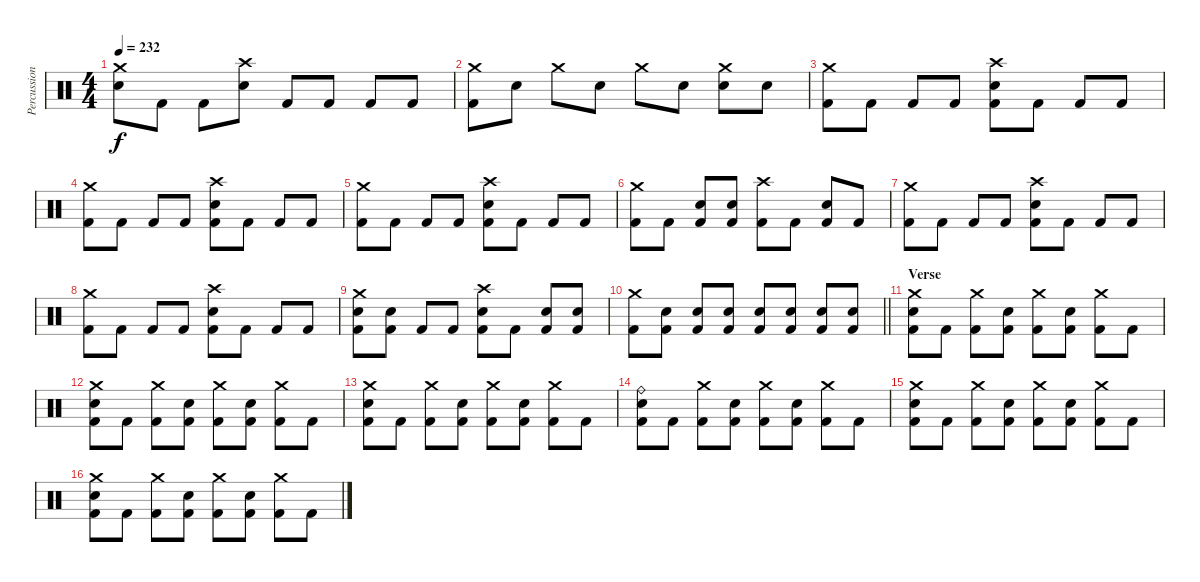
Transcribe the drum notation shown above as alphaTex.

\track ("Percussion" "Percussion") {instrument percussion}
\staff {score}
\articulation defaults
\ts (4 4)
\tempo 232
\clef neutral
\ks c
("Crash medium (hit)" "Electric Snare (hit)").8{dy f} "Kick (hit) 2".8 "Kick (hit) 2".8 ("Crash high (hit)" "Electric Snare (hit)").8 "Kick (hit) 2".8 "Kick (hit) 2".8 "Kick (hit) 2".8 "Kick (hit) 2".8 |
("Crash medium (hit)" "Kick (hit) 2").8 "Electric Snare (hit)".8 "Crash medium (hit)".8 "Electric Snare (hit)".8 "Crash medium (hit)".8 "Electric Snare (hit)".8 ("Crash medium (hit)" "Electric Snare (hit)").8 "Electric Snare (hit)".8 |
("Crash medium (hit)" "Kick (hit) 2").8 "Kick (hit) 2".8 "Kick (hit) 2".8 "Kick (hit) 2".8 ("Crash high (hit)" "Electric Snare (hit)" "Kick (hit) 2").8 "Kick (hit) 2".8 "Kick (hit) 2".8 "Kick (hit) 2".8 |
("Crash medium (hit)" "Kick (hit) 2").8 "Kick (hit) 2".8 "Kick (hit) 2".8 "Kick (hit) 2".8 ("Crash high (hit)" "Electric Snare (hit)" "Kick (hit) 2").8 "Kick (hit) 2".8 "Kick (hit) 2".8 "Kick (hit) 2".8 |
("Crash medium (hit)" "Kick (hit) 2").8 "Kick (hit) 2".8 "Kick (hit) 2".8 "Kick (hit) 2".8 ("Crash high (hit)" "Electric Snare (hit)" "Kick (hit) 2").8 "Kick (hit) 2".8 "Kick (hit) 2".8 "Kick (hit) 2".8 |
("Crash medium (hit)" "Kick (hit) 2").8 "Kick (hit) 2".8 ("Electric Snare (hit)" "Kick (hit) 2").8 ("Electric Snare (hit)" "Kick (hit) 2").8 ("Crash high (hit)" "Kick (hit) 2").8 "Kick (hit) 2".8 ("Electric Snare (hit)" "Kick (hit) 2").8 "Kick (hit) 2".8 |
("Crash medium (hit)" "Kick (hit) 2").8 "Kick (hit) 2".8 "Kick (hit) 2".8 "Kick (hit) 2".8 ("Crash high (hit)" "Electric Snare (hit)" "Kick (hit) 2").8 "Kick (hit) 2".8 "Kick (hit) 2".8 "Kick (hit) 2".8 |
("Crash medium (hit)" "Kick (hit) 2").8 "Kick (hit) 2".8 "Kick (hit) 2".8 "Kick (hit) 2".8 ("Crash high (hit)" "Electric Snare (hit)" "Kick (hit) 2").8 "Kick (hit) 2".8 "Kick (hit) 2".8 "Kick (hit) 2".8 |
("Crash medium (hit)" "Electric Snare (hit)" "Kick (hit) 2").8 ("Electric Snare (hit)" "Kick (hit) 2").8 "Kick (hit) 2".8 "Kick (hit) 2".8 ("Crash high (hit)" "Electric Snare (hit)" "Kick (hit) 2").8 "Kick (hit) 2".8 ("Electric Snare (hit)" "Kick (hit) 2").8 ("Electric Snare (hit)" "Kick (hit) 2").8 |
\barLineRight lightlight
("Crash medium (hit)" "Kick (hit) 2").8 ("Electric Snare (hit)" "Kick (hit) 2").8 ("Electric Snare (hit)" "Kick (hit) 2").8 ("Electric Snare (hit)" "Kick (hit) 2").8 ("Electric Snare (hit)" "Kick (hit) 2").8 ("Electric Snare (hit)" "Kick (hit) 2").8 ("Electric Snare (hit)" "Kick (hit) 2").8 ("Electric Snare (hit)" "Kick (hit) 2").8 |
\section ("" "Verse")
("Crash medium (hit)" "Electric Snare (hit)" "Kick (hit) 2").8 "Kick (hit) 2".8 ("Crash medium (hit)" "Kick (hit) 2").8 ("Electric Snare (hit)" "Kick (hit) 2").8 ("Crash medium (hit)" "Kick (hit) 2").8 ("Electric Snare (hit)" "Kick (hit) 2").8 ("Crash medium (hit)" "Kick (hit) 2").8 "Kick (hit) 2".8 |
("Crash medium (hit)" "Electric Snare (hit)" "Kick (hit) 2").8 "Kick (hit) 2".8 ("Crash medium (hit)" "Kick (hit) 2").8 ("Electric Snare (hit)" "Kick (hit) 2").8 ("Crash medium (hit)" "Kick (hit) 2").8 ("Electric Snare (hit)" "Kick (hit) 2").8 ("Crash medium (hit)" "Kick (hit) 2").8 "Kick (hit) 2".8 |
("Crash medium (hit)" "Electric Snare (hit)" "Kick (hit) 2").8 "Kick (hit) 2".8 ("Crash medium (hit)" "Kick (hit) 2").8 ("Electric Snare (hit)" "Kick (hit) 2").8 ("Crash medium (hit)" "Kick (hit) 2").8 ("Electric Snare (hit)" "Kick (hit) 2").8 ("Crash medium (hit)" "Kick (hit) 2").8 "Kick (hit) 2".8 |
("Ride (bell)" "Electric Snare (hit)" "Kick (hit) 2").8 "Kick (hit) 2".8 ("Crash medium (hit)" "Kick (hit) 2").8 ("Electric Snare (hit)" "Kick (hit) 2").8 ("Crash medium (hit)" "Kick (hit) 2").8 ("Electric Snare (hit)" "Kick (hit) 2").8 ("Crash medium (hit)" "Kick (hit) 2").8 "Kick (hit) 2".8 |
("Crash medium (hit)" "Electric Snare (hit)" "Kick (hit) 2").8 "Kick (hit) 2".8 ("Crash medium (hit)" "Kick (hit) 2").8 ("Electric Snare (hit)" "Kick (hit) 2").8 ("Crash medium (hit)" "Kick (hit) 2").8 ("Electric Snare (hit)" "Kick (hit) 2").8 ("Crash medium (hit)" "Kick (hit) 2").8 "Kick (hit) 2".8 |
("Crash medium (hit)" "Electric Snare (hit)" "Kick (hit) 2").8 "Kick (hit) 2".8 ("Crash medium (hit)" "Kick (hit) 2").8 ("Electric Snare (hit)" "Kick (hit) 2").8 ("Crash medium (hit)" "Kick (hit) 2").8 ("Electric Snare (hit)" "Kick (hit) 2").8 ("Crash medium (hit)" "Kick (hit) 2").8 "Kick (hit) 2".8
